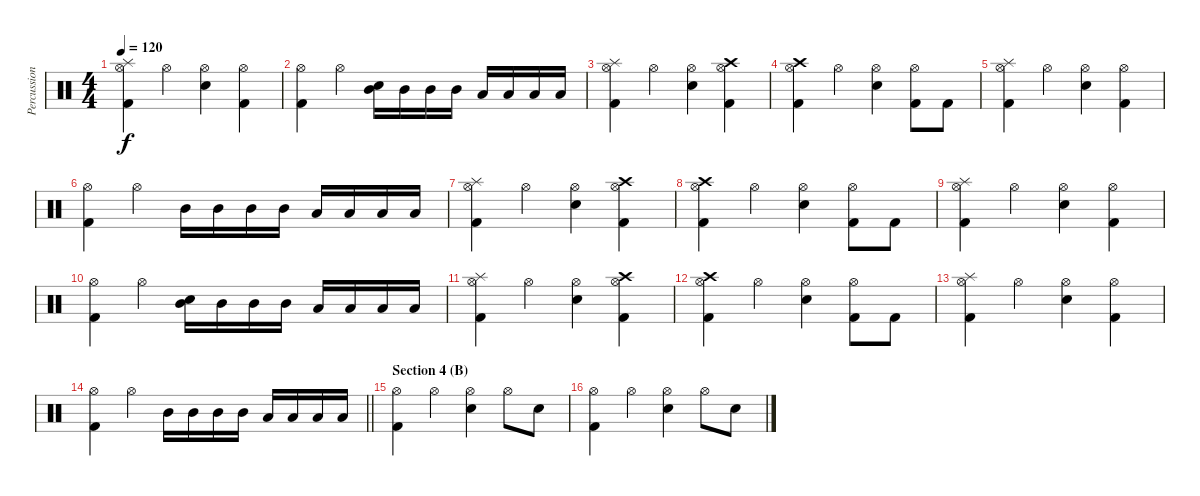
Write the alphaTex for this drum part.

\track ("Percussion" "Percussion") {instrument percussion}
\staff {score}
\articulation defaults
\ts (4 4)
\tempo 120
\clef neutral
\ks c
("Splash (hit)" "Hi-Hat (open)" "Kick (hit) 2").4{dy f} "Hi-Hat (open)".4 ("Hi-Hat (open)" "Snare (hit) 2").4 ("Hi-Hat (open)" "Kick (hit) 2").4 |
("Hi-Hat (open)" "Kick (hit) 2").4 "Hi-Hat (open)".4 ("Mid Tom (hit)" "Snare (hit) 2").16 "Mid Tom (hit)".16 "Mid Tom (hit)".16 "Mid Tom (hit)".16 "Low Tom (hit)".16 "Low Tom (hit)".16 "Low Tom (hit)".16 "Low Tom (hit)".16 |
("Splash (hit)" "Hi-Hat (open)" "Kick (hit) 2").4 "Hi-Hat (open)".4 ("Hi-Hat (open)" "Snare (hit) 2").4 ("Hi-Hat (open)" "Crash high (hit)" "Kick (hit) 2").4 |
("Hi-Hat (open)" "Crash high (hit)" "Kick (hit) 2").4 "Hi-Hat (open)".4 ("Hi-Hat (open)" "Snare (hit) 2").4 ("Hi-Hat (open)" "Kick (hit) 2").8 "Kick (hit) 2".8 |
("Splash (hit)" "Hi-Hat (open)" "Kick (hit) 2").4 "Hi-Hat (open)".4 ("Hi-Hat (open)" "Snare (hit) 2").4 ("Hi-Hat (open)" "Kick (hit) 2").4 |
("Hi-Hat (open)" "Kick (hit) 2").4 "Hi-Hat (open)".4 "Mid Tom (hit)".16 "Mid Tom (hit)".16 "Mid Tom (hit)".16 "Mid Tom (hit)".16 "Low Tom (hit)".16 "Low Tom (hit)".16 "Low Tom (hit)".16 "Low Tom (hit)".16 |
("Splash (hit)" "Hi-Hat (open)" "Kick (hit) 2").4 "Hi-Hat (open)".4 ("Hi-Hat (open)" "Snare (hit) 2").4 ("Hi-Hat (open)" "Crash high (hit)" "Kick (hit) 2").4 |
("Hi-Hat (open)" "Crash high (hit)" "Kick (hit) 2").4 "Hi-Hat (open)".4 ("Hi-Hat (open)" "Snare (hit) 2").4 ("Hi-Hat (open)" "Kick (hit) 2").8 "Kick (hit) 2".8 |
("Splash (hit)" "Hi-Hat (open)" "Kick (hit) 2").4 "Hi-Hat (open)".4 ("Hi-Hat (open)" "Snare (hit) 2").4 ("Hi-Hat (open)" "Kick (hit) 2").4 |
("Hi-Hat (open)" "Kick (hit) 2").4 "Hi-Hat (open)".4 ("Mid Tom (hit)" "Snare (hit) 2").16 "Mid Tom (hit)".16 "Mid Tom (hit)".16 "Mid Tom (hit)".16 "Low Tom (hit)".16 "Low Tom (hit)".16 "Low Tom (hit)".16 "Low Tom (hit)".16 |
("Splash (hit)" "Hi-Hat (open)" "Kick (hit) 2").4 "Hi-Hat (open)".4 ("Hi-Hat (open)" "Snare (hit) 2").4 ("Hi-Hat (open)" "Crash high (hit)" "Kick (hit) 2").4 |
("Hi-Hat (open)" "Crash high (hit)" "Kick (hit) 2").4 "Hi-Hat (open)".4 ("Hi-Hat (open)" "Snare (hit) 2").4 ("Hi-Hat (open)" "Kick (hit) 2").8 "Kick (hit) 2".8 |
("Splash (hit)" "Hi-Hat (open)" "Kick (hit) 2").4 "Hi-Hat (open)".4 ("Hi-Hat (open)" "Snare (hit) 2").4 ("Hi-Hat (open)" "Kick (hit) 2").4 |
\barLineRight lightlight
("Hi-Hat (open)" "Kick (hit) 2").4 "Hi-Hat (open)".4 "Mid Tom (hit)".16 "Mid Tom (hit)".16 "Mid Tom (hit)".16 "Mid Tom (hit)".16 "Low Tom (hit)".16 "Low Tom (hit)".16 "Low Tom (hit)".16 "Low Tom (hit)".16 |
\section ("" "Section 4 (B)")
("Hi-Hat (open)" "Kick (hit) 2").4 "Hi-Hat (open)".4 ("Hi-Hat (open)" "Snare (hit) 2").4 "Hi-Hat (open)".8 "Snare (hit) 2".8 |
("Hi-Hat (open)" "Kick (hit) 2").4 "Hi-Hat (open)".4 ("Hi-Hat (open)" "Snare (hit) 2").4 "Hi-Hat (open)".8 "Snare (hit) 2".8
